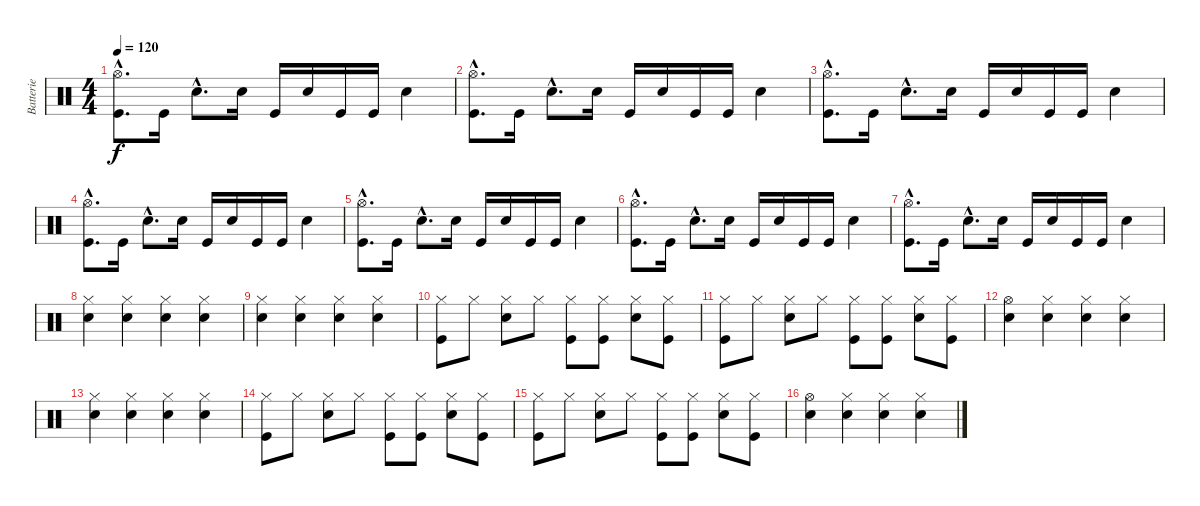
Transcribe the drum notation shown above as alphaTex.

\track ("Batterie" "Batterie") {instrument percussion}
\staff {score}
\articulation defaults
\ts (4 4)
\tempo 120
\clef neutral
\ks c
("Hi-Hat (open)"{hac} "Kick (hit)"{hac}).8{d dy f} "Kick (hit)".16 "Snare (hit) 2"{hac}.8{d} "Snare (hit) 2".16 "Kick (hit)".16 "Snare (hit) 2".16 "Kick (hit)".16 "Kick (hit)".16 "Snare (hit) 2".4 |
("Hi-Hat (open)"{hac} "Kick (hit)"{hac}).8{d} "Kick (hit)".16 "Snare (hit) 2"{hac}.8{d} "Snare (hit) 2".16 "Kick (hit)".16 "Snare (hit) 2".16 "Kick (hit)".16 "Kick (hit)".16 "Snare (hit) 2".4 |
("Hi-Hat (open)"{hac} "Kick (hit)"{hac}).8{d} "Kick (hit)".16 "Snare (hit) 2"{hac}.8{d} "Snare (hit) 2".16 "Kick (hit)".16 "Snare (hit) 2".16 "Kick (hit)".16 "Kick (hit)".16 "Snare (hit) 2".4 |
("Hi-Hat (open)"{hac} "Kick (hit)"{hac}).8{d} "Kick (hit)".16 "Snare (hit) 2"{hac}.8{d} "Snare (hit) 2".16 "Kick (hit)".16 "Snare (hit) 2".16 "Kick (hit)".16 "Kick (hit)".16 "Snare (hit) 2".4 |
("Hi-Hat (open)"{hac} "Kick (hit)"{hac}).8{d} "Kick (hit)".16 "Snare (hit) 2"{hac}.8{d} "Snare (hit) 2".16 "Kick (hit)".16 "Snare (hit) 2".16 "Kick (hit)".16 "Kick (hit)".16 "Snare (hit) 2".4 |
("Hi-Hat (open)"{hac} "Kick (hit)"{hac}).8{d} "Kick (hit)".16 "Snare (hit) 2"{hac}.8{d} "Snare (hit) 2".16 "Kick (hit)".16 "Snare (hit) 2".16 "Kick (hit)".16 "Kick (hit)".16 "Snare (hit) 2".4 |
("Hi-Hat (open)"{hac} "Kick (hit)"{hac}).8{d} "Kick (hit)".16 "Snare (hit) 2"{hac}.8{d} "Snare (hit) 2".16 "Kick (hit)".16 "Snare (hit) 2".16 "Kick (hit)".16 "Kick (hit)".16 "Snare (hit) 2".4 |
("Hi-Hat (closed)" "Snare (hit) 2").4 ("Hi-Hat (closed)" "Snare (hit) 2").4 ("Hi-Hat (closed)" "Snare (hit) 2").4 ("Hi-Hat (closed)" "Snare (hit) 2").4 |
("Hi-Hat (closed)" "Snare (hit) 2").4 ("Hi-Hat (closed)" "Snare (hit) 2").4 ("Hi-Hat (closed)" "Snare (hit) 2").4 ("Hi-Hat (closed)" "Snare (hit) 2").4 |
("Hi-Hat (closed)" "Kick (hit)").8 "Hi-Hat (closed)".8 ("Hi-Hat (closed)" "Snare (hit) 2").8 "Hi-Hat (closed)".8 ("Hi-Hat (closed)" "Kick (hit)").8 ("Hi-Hat (closed)" "Kick (hit)").8 ("Hi-Hat (closed)" "Snare (hit) 2").8 ("Hi-Hat (closed)" "Kick (hit)").8 |
("Hi-Hat (closed)" "Kick (hit)").8 "Hi-Hat (closed)".8 ("Hi-Hat (closed)" "Snare (hit) 2").8 "Hi-Hat (closed)".8 ("Hi-Hat (closed)" "Kick (hit)").8 ("Hi-Hat (closed)" "Kick (hit)").8 ("Hi-Hat (closed)" "Snare (hit) 2").8 ("Hi-Hat (closed)" "Kick (hit)").8 |
("Hi-Hat (open)" "Snare (hit) 2").4 ("Hi-Hat (closed)" "Snare (hit) 2").4 ("Hi-Hat (closed)" "Snare (hit) 2").4 ("Hi-Hat (closed)" "Snare (hit) 2").4 |
("Hi-Hat (closed)" "Snare (hit) 2").4 ("Hi-Hat (closed)" "Snare (hit) 2").4 ("Hi-Hat (closed)" "Snare (hit) 2").4 ("Hi-Hat (closed)" "Snare (hit) 2").4 |
("Hi-Hat (closed)" "Kick (hit)").8 "Hi-Hat (closed)".8 ("Hi-Hat (closed)" "Snare (hit) 2").8 "Hi-Hat (closed)".8 ("Hi-Hat (closed)" "Kick (hit)").8 ("Hi-Hat (closed)" "Kick (hit)").8 ("Hi-Hat (closed)" "Snare (hit) 2").8 ("Hi-Hat (closed)" "Kick (hit)").8 |
("Hi-Hat (closed)" "Kick (hit)").8 "Hi-Hat (closed)".8 ("Hi-Hat (closed)" "Snare (hit) 2").8 "Hi-Hat (closed)".8 ("Hi-Hat (closed)" "Kick (hit)").8 ("Hi-Hat (closed)" "Kick (hit)").8 ("Hi-Hat (closed)" "Snare (hit) 2").8 ("Hi-Hat (closed)" "Kick (hit)").8 |
("Hi-Hat (open)" "Snare (hit) 2").4 ("Hi-Hat (closed)" "Snare (hit) 2").4 ("Hi-Hat (closed)" "Snare (hit) 2").4 ("Hi-Hat (closed)" "Snare (hit) 2").4
